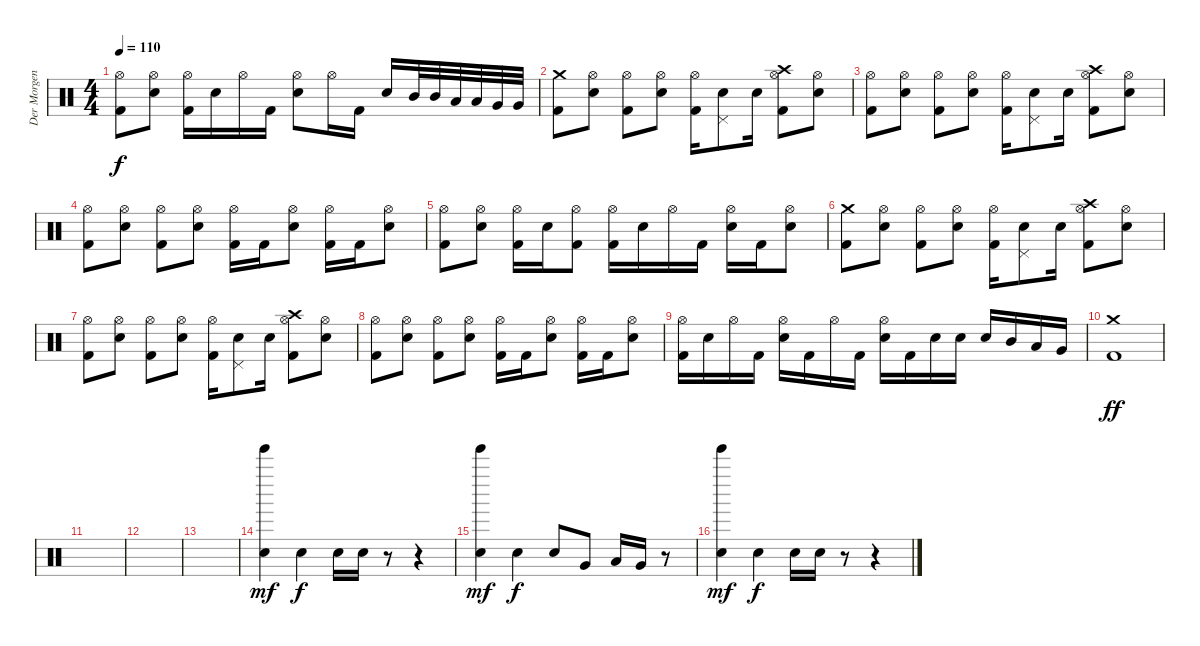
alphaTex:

\track ("Der Morgenstern" "Der Morgen") {instrument percussion}
\staff {score}
\articulation defaults
\ts (4 4)
\tempo 110
\clef neutral
\ks c
("Hi-Hat (open)" "Kick (hit) 2").8{dy f} ("Hi-Hat (open)" "Electric Snare (hit)").8 ("Hi-Hat (open)" "Kick (hit) 2").16 "Electric Snare (hit)".16 "Hi-Hat (open)".16 "Kick (hit) 2".16 ("Hi-Hat (open)" "Electric Snare (hit)").8 "Hi-Hat (open)".16 "Kick (hit) 2".16 "Electric Snare (hit)".16 "Mid Tom (hit)".32 "Mid Tom (hit)".32 "Low Tom (hit)".32 "Low Tom (hit)".32 "Very Low Tom (hit)".32 "Very Low Tom (hit)".32 |
("Crash medium (hit)" "Kick (hit) 2").8 ("Hi-Hat (open)" "Electric Snare (hit)").8 ("Hi-Hat (open)" "Kick (hit) 2").8 ("Hi-Hat (open)" "Electric Snare (hit)").8 ("Hi-Hat (open)" "Kick (hit) 2").16 ("Pedal Hi-Hat (hit)" "Electric Snare (hit)").8 "Electric Snare (hit)".16 ("Crash high (hit)" "Hi-Hat (open)" "Kick (hit) 2").8 ("Hi-Hat (open)" "Electric Snare (hit)").8 |
("Hi-Hat (open)" "Kick (hit) 2").8 ("Hi-Hat (open)" "Electric Snare (hit)").8 ("Hi-Hat (open)" "Kick (hit) 2").8 ("Hi-Hat (open)" "Electric Snare (hit)").8 ("Hi-Hat (open)" "Kick (hit) 2").16 ("Pedal Hi-Hat (hit)" "Electric Snare (hit)").8 "Electric Snare (hit)".16 ("Crash high (hit)" "Hi-Hat (open)" "Kick (hit) 2").8 ("Hi-Hat (open)" "Electric Snare (hit)").8 |
("Hi-Hat (open)" "Kick (hit) 2").8 ("Hi-Hat (open)" "Electric Snare (hit)").8 ("Hi-Hat (open)" "Kick (hit) 2").8 ("Hi-Hat (open)" "Electric Snare (hit)").8 ("Hi-Hat (open)" "Kick (hit) 2").16 "Kick (hit) 2".16 ("Hi-Hat (open)" "Electric Snare (hit)").8 ("Hi-Hat (open)" "Kick (hit) 2").16 "Kick (hit) 2".16 ("Hi-Hat (open)" "Electric Snare (hit)").8 |
("Hi-Hat (open)" "Kick (hit) 2").8 ("Hi-Hat (open)" "Electric Snare (hit)").8 ("Hi-Hat (open)" "Kick (hit) 2").16 "Electric Snare (hit)".16 ("Hi-Hat (open)" "Kick (hit) 2").8 ("Hi-Hat (open)" "Kick (hit) 2").16 "Electric Snare (hit)".16 "Hi-Hat (open)".16 "Kick (hit) 2".16 ("Hi-Hat (open)" "Electric Snare (hit)").16 "Kick (hit) 2".16 ("Hi-Hat (open)" "Electric Snare (hit)").8 |
("Crash medium (hit)" "Kick (hit) 2").8 ("Hi-Hat (open)" "Electric Snare (hit)").8 ("Hi-Hat (open)" "Kick (hit) 2").8 ("Hi-Hat (open)" "Electric Snare (hit)").8 ("Hi-Hat (open)" "Kick (hit) 2").16 ("Pedal Hi-Hat (hit)" "Electric Snare (hit)").8 "Electric Snare (hit)".16 ("Crash high (hit)" "Hi-Hat (open)" "Kick (hit) 2").8 ("Hi-Hat (open)" "Electric Snare (hit)").8 |
("Hi-Hat (open)" "Kick (hit) 2").8 ("Hi-Hat (open)" "Electric Snare (hit)").8 ("Hi-Hat (open)" "Kick (hit) 2").8 ("Hi-Hat (open)" "Electric Snare (hit)").8 ("Hi-Hat (open)" "Kick (hit) 2").16 ("Pedal Hi-Hat (hit)" "Electric Snare (hit)").8 "Electric Snare (hit)".16 ("Crash high (hit)" "Hi-Hat (open)" "Kick (hit) 2").8 ("Hi-Hat (open)" "Electric Snare (hit)").8 |
("Hi-Hat (open)" "Kick (hit) 2").8 ("Hi-Hat (open)" "Electric Snare (hit)").8 ("Hi-Hat (open)" "Kick (hit) 2").8 ("Hi-Hat (open)" "Electric Snare (hit)").8 ("Hi-Hat (open)" "Kick (hit) 2").16 "Kick (hit) 2".16 ("Hi-Hat (open)" "Electric Snare (hit)").8 ("Hi-Hat (open)" "Kick (hit) 2").16 "Kick (hit) 2".16 ("Hi-Hat (open)" "Electric Snare (hit)").8 |
("Hi-Hat (open)" "Kick (hit) 2").16 "Electric Snare (hit)".16 "Hi-Hat (open)".16 "Kick (hit) 2".16 ("Hi-Hat (open)" "Electric Snare (hit)").16 "Kick (hit) 2".16 "Hi-Hat (open)".16 "Kick (hit) 2".16 ("Hi-Hat (open)" "Electric Snare (hit)").16 "Kick (hit) 2".16 "Electric Snare (hit)".16 "Electric Snare (hit)".16 "Electric Snare (hit)".16 "Mid Tom (hit)".16 "Low Tom (hit)".16 "Very Low Tom (hit)".16 |
("Crash medium (hit)" "Kick (hit) 2").1{dy ff} |
|
|
|
("Electric Snare (hit)" "Tinkle Bell (hit)").4{dy mf} "Electric Snare (hit)".4{dy f} "Electric Snare (hit)".16 "Electric Snare (hit)".16 r.8 r.4 |
("Electric Snare (hit)" "Tinkle Bell (hit)").4{dy mf} "Electric Snare (hit)".4{dy f} "Electric Snare (hit)".8 "Very Low Tom (hit)".8 "Low Tom (hit)".16 "Very Low Tom (hit)".16 r.8 |
("Electric Snare (hit)" "Tinkle Bell (hit)").4{dy mf} "Electric Snare (hit)".4{dy f} "Electric Snare (hit)".16 "Electric Snare (hit)".16 r.8 r.4
